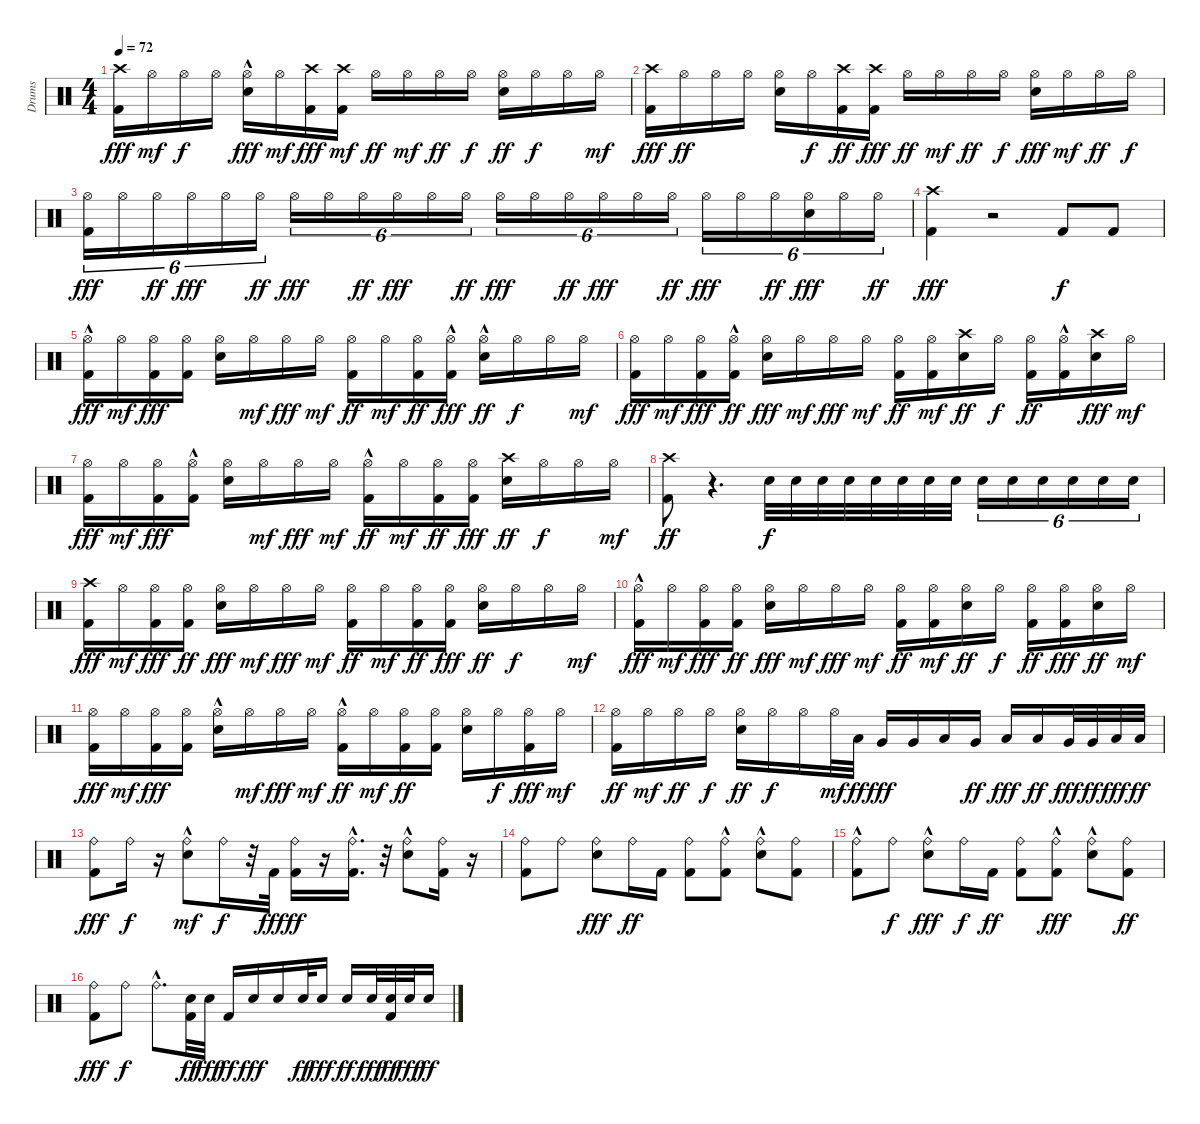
\track ("Drums" "Drums") {instrument percussion}
\staff {score}
\articulation defaults
\ts (4 4)
\tempo 72
\clef neutral
\ks c
("Kick (hit) 2" "Crash high (hit)").16{dy fff} "Hi-Hat (open)".16{dy mf} "Hi-Hat (open)".16{dy f} "Hi-Hat (open)".16 ("Snare (hit) 2"{hac} "Hi-Hat (open)").16{dy fff} "Hi-Hat (open)".16{dy mf} ("Kick (hit) 2" "Crash high (hit)").16{dy fff} ("Kick (hit) 2" "Crash high (hit)").16{dy mf} "Hi-Hat (open)".16{dy ff} "Hi-Hat (open)".16{dy mf} "Hi-Hat (open)".16{dy ff} "Hi-Hat (open)".16{dy f} ("Snare (hit) 2" "Hi-Hat (open)").16{dy ff} "Hi-Hat (open)".16{dy f} "Hi-Hat (open)".16 "Hi-Hat (open)".16{dy mf} |
("Crash high (hit)" "Kick (hit) 2").16{dy fff} "Hi-Hat (open)".16{dy ff} "Hi-Hat (open)".16 "Hi-Hat (open)".16 ("Snare (hit) 2" "Hi-Hat (open)").16 "Hi-Hat (open)".16{dy f} ("Kick (hit) 2" "Crash high (hit)").16{dy ff} ("Crash high (hit)" "Kick (hit) 2").16{dy fff} "Hi-Hat (open)".16{dy ff} "Hi-Hat (open)".16{dy mf} "Hi-Hat (open)".16{dy ff} "Hi-Hat (open)".16{dy f} ("Hi-Hat (open)" "Snare (hit) 2").16{dy fff} "Hi-Hat (open)".16{dy mf} "Hi-Hat (open)".16{dy ff} "Hi-Hat (open)".16{dy f} |
("Kick (hit) 2" "Hi-Hat (open)").16{tu (6 4) dy fff} "Hi-Hat (open)".16{tu (6 4)} "Hi-Hat (open)".16{tu (6 4) dy ff} "Hi-Hat (open)".16{tu (6 4) dy fff} "Hi-Hat (open)".16{tu (6 4)} "Hi-Hat (open)".16{tu (6 4) dy ff} "Hi-Hat (open)".16{tu (6 4) dy fff} "Hi-Hat (open)".16{tu (6 4)} "Hi-Hat (open)".16{tu (6 4) dy ff} "Hi-Hat (open)".16{tu (6 4) dy fff} "Hi-Hat (open)".16{tu (6 4)} "Hi-Hat (open)".16{tu (6 4) dy ff} "Hi-Hat (open)".16{tu (6 4) dy fff} "Hi-Hat (open)".16{tu (6 4)} "Hi-Hat (open)".16{tu (6 4) dy ff} "Hi-Hat (open)".16{tu (6 4) dy fff} "Hi-Hat (open)".16{tu (6 4)} "Hi-Hat (open)".16{tu (6 4) dy ff} "Hi-Hat (open)".16{tu (6 4) dy fff} "Hi-Hat (open)".16{tu (6 4)} "Hi-Hat (open)".16{tu (6 4) dy ff} ("Hi-Hat (open)" "Snare (hit) 2").16{tu (6 4) dy fff} "Hi-Hat (open)".16{tu (6 4)} "Hi-Hat (open)".16{tu (6 4) dy ff} |
("Kick (hit) 2" "Crash high (hit)").4{dy fff} r.2 "Kick (hit) 2".8{dy f} "Kick (hit) 2".8 |
("Kick (hit) 2"{hac} "Hi-Hat (open)").16{dy fff} "Hi-Hat (open)".16{dy mf} ("Kick (hit) 2" "Hi-Hat (open)").16{dy fff} ("Kick (hit) 2" "Hi-Hat (open)").16 ("Snare (hit) 2" "Hi-Hat (open)").16 "Hi-Hat (open)".16{dy mf} "Hi-Hat (open)".16{dy fff} "Hi-Hat (open)".16{dy mf} ("Kick (hit) 2" "Hi-Hat (open)").16{dy ff} "Hi-Hat (open)".16{dy mf} ("Kick (hit) 2" "Hi-Hat (open)").16{dy ff} ("Kick (hit) 2"{hac} "Hi-Hat (open)").16{dy fff} ("Snare (hit) 2"{hac} "Hi-Hat (open)").16{dy ff} "Hi-Hat (open)".16{dy f} "Hi-Hat (open)".16 "Hi-Hat (open)".16{dy mf} |
("Kick (hit) 2" "Hi-Hat (open)").16{dy fff} "Hi-Hat (open)".16{dy mf} ("Kick (hit) 2" "Hi-Hat (open)").16{dy fff} ("Kick (hit) 2"{hac} "Hi-Hat (open)").16{dy ff} ("Snare (hit) 2" "Hi-Hat (open)").16{dy fff} "Hi-Hat (open)".16{dy mf} "Hi-Hat (open)".16{dy fff} "Hi-Hat (open)".16{dy mf} ("Kick (hit) 2" "Hi-Hat (open)").16{dy ff} ("Kick (hit) 2" "Hi-Hat (open)").16{dy mf} ("Snare (hit) 2" "Crash high (hit)").16{dy ff} "Hi-Hat (open)".16{dy f} ("Kick (hit) 2" "Hi-Hat (open)").16{dy ff} ("Kick (hit) 2"{hac} "Hi-Hat (open)").16 ("Snare (hit) 2" "Crash high (hit)").16{dy fff} "Hi-Hat (open)".16{dy mf} |
("Kick (hit) 2" "Hi-Hat (open)").16{dy fff} "Hi-Hat (open)".16{dy mf} ("Kick (hit) 2" "Hi-Hat (open)").16{dy fff} ("Kick (hit) 2"{hac} "Hi-Hat (open)").16 ("Snare (hit) 2" "Hi-Hat (open)").16 "Hi-Hat (open)".16{dy mf} "Hi-Hat (open)".16{dy fff} "Hi-Hat (open)".16{dy mf} ("Kick (hit) 2"{hac} "Hi-Hat (open)").16{dy ff} "Hi-Hat (open)".16{dy mf} ("Kick (hit) 2" "Hi-Hat (open)").16{dy ff} ("Kick (hit) 2" "Hi-Hat (open)").16{dy fff} ("Snare (hit) 2" "Crash high (hit)").16{dy ff} "Hi-Hat (open)".16{dy f} "Hi-Hat (open)".16 "Hi-Hat (open)".16{dy mf} |
("Kick (hit) 2" "Crash high (hit)").8{dy ff} r.4{d} "Snare (hit) 2".32{dy f} "Snare (hit) 2".32 "Snare (hit) 2".32 "Snare (hit) 2".32 "Snare (hit) 2".32 "Snare (hit) 2".32 "Snare (hit) 2".32 "Snare (hit) 2".32 "Snare (hit) 2".16{tu (6 4)} "Snare (hit) 2".16{tu (6 4)} "Snare (hit) 2".16{tu (6 4)} "Snare (hit) 2".16{tu (6 4)} "Snare (hit) 2".16{tu (6 4)} "Snare (hit) 2".16{tu (6 4)} |
("Kick (hit) 2" "Crash high (hit)").16{dy fff} "Hi-Hat (open)".16{dy mf} ("Kick (hit) 2" "Hi-Hat (open)").16{dy fff} ("Kick (hit) 2" "Hi-Hat (open)").16{dy ff} ("Snare (hit) 2" "Hi-Hat (open)").16{dy fff} "Hi-Hat (open)".16{dy mf} "Hi-Hat (open)".16{dy fff} "Hi-Hat (open)".16{dy mf} ("Kick (hit) 2" "Hi-Hat (open)").16{dy ff} "Hi-Hat (open)".16{dy mf} ("Kick (hit) 2" "Hi-Hat (open)").16{dy ff} ("Kick (hit) 2" "Hi-Hat (open)").16{dy fff} ("Snare (hit) 2" "Hi-Hat (open)").16{dy ff} "Hi-Hat (open)".16{dy f} "Hi-Hat (open)".16 "Hi-Hat (open)".16{dy mf} |
("Kick (hit) 2"{hac} "Hi-Hat (open)").16{dy fff} "Hi-Hat (open)".16{dy mf} ("Kick (hit) 2" "Hi-Hat (open)").16{dy fff} ("Kick (hit) 2" "Hi-Hat (open)").16{dy ff} ("Snare (hit) 2" "Hi-Hat (open)").16{dy fff} "Hi-Hat (open)".16{dy mf} "Hi-Hat (open)".16{dy fff} "Hi-Hat (open)".16{dy mf} ("Kick (hit) 2" "Hi-Hat (open)").16{dy ff} ("Kick (hit) 2" "Hi-Hat (open)").16{dy mf} ("Snare (hit) 2" "Hi-Hat (open)").16{dy ff} "Hi-Hat (open)".16{dy f} ("Kick (hit) 2" "Hi-Hat (open)").16{dy ff} ("Kick (hit) 2" "Hi-Hat (open)").16{dy fff} ("Snare (hit) 2" "Hi-Hat (open)").16{dy ff} "Hi-Hat (open)".16{dy mf} |
("Kick (hit) 2" "Hi-Hat (open)").16{dy fff} "Hi-Hat (open)".16{dy mf} ("Kick (hit) 2" "Hi-Hat (open)").16{dy fff} ("Kick (hit) 2" "Hi-Hat (open)").16 ("Snare (hit) 2"{hac} "Hi-Hat (open)").16 "Hi-Hat (open)".16{dy mf} "Hi-Hat (open)".16{dy fff} "Hi-Hat (open)".16{dy mf} ("Kick (hit) 2"{hac} "Hi-Hat (open)").16{dy ff} "Hi-Hat (open)".16{dy mf} ("Kick (hit) 2" "Hi-Hat (open)").16{dy ff} ("Kick (hit) 2" "Hi-Hat (open)").16 ("Snare (hit) 2" "Hi-Hat (open)").16 "Hi-Hat (open)".16{dy f} ("Kick (hit) 2" "Hi-Hat (open)").16{dy fff} "Hi-Hat (open)".16{dy mf} |
("Kick (hit) 2" "Hi-Hat (open)").16{dy ff} "Hi-Hat (open)".16{dy mf} "Hi-Hat (open)".16{dy ff} "Hi-Hat (open)".16{dy f} ("Snare (hit) 2" "Hi-Hat (open)").16{dy ff} "Hi-Hat (open)".16{dy f} "Hi-Hat (open)".16 "Hi-Hat (open)".32{dy mf} "Low Floor Tom (hit)".32{dy ff} "Very Low Tom (hit)".16{dy fff} "Very Low Tom (hit)".16 "Low Floor Tom (hit)".16 "Very Low Tom (hit)".16{dy ff} "Low Tom (hit)".16{dy fff} "Low Tom (hit)".16{dy ff} "Very Low Tom (hit)".32{dy fff} "Very Low Tom (hit)".32{dy ff} "Low Floor Tom (hit)".32{dy fff} "Low Floor Tom (hit)".32{dy ff} |
("Ride (bell)" "Kick (hit) 2").8{dy fff} "Ride (bell)".16{dy f} r.16 ("Snare (hit) 2"{hac} "Ride (bell)").8{dy mf} "Ride (bell)".16{dy f} r.32 "Kick (hit) 2".32{dy fff} ("Ride (bell)" "Kick (hit) 2").16{dy ff} r.16 ("Kick (hit) 2"{hac} "Ride (bell)").16{d} r.32 ("Snare (hit) 2"{hac} "Ride (bell)").8 ("Kick (hit) 2" "Ride (bell)").16 r.16 |
("Kick (hit) 2" "Ride (bell)").8 "Ride (bell)".8 ("Snare (hit) 2" "Ride (bell)").8{dy fff} "Ride (bell)".16{dy ff} "Kick (hit) 2".16 ("Kick (hit) 2" "Ride (bell)").8 ("Kick (hit) 2"{hac} "Ride (bell)").8 ("Snare (hit) 2"{hac} "Ride (bell)").8 ("Kick (hit) 2" "Ride (bell)").8 |
("Kick (hit) 2"{hac} "Ride (bell)").8 "Ride (bell)".8{dy f} ("Snare (hit) 2"{hac} "Ride (bell)").8{dy fff} "Ride (bell)".16{dy f} "Kick (hit) 2".16{dy ff} ("Kick (hit) 2" "Ride (bell)").8 ("Kick (hit) 2"{hac} "Ride (bell)").8{dy fff} ("Snare (hit) 2"{hac} "Ride (bell)").8 ("Kick (hit) 2" "Ride (bell)").8{dy ff} |
("Kick (hit) 2" "Ride (bell)").8{dy fff} "Ride (bell)".8{dy f} "Ride (bell)"{hac}.8{d} ("Kick (hit) 2" "Snare (hit) 2").32{dy ff} "Snare (hit) 2".32{dy fff} "Kick (hit) 2".16{dy ff} "Snare (hit) 2".16{dy fff} "Snare (hit) 2".16 "Snare (hit) 2".32{dy ff} "Snare (hit) 2".16{dy fff} "Snare (hit) 2".16{dy ff} "Snare (hit) 2".32{dy fff} ("Kick (hit) 2" "Snare (hit) 2").32{dy ff} "Snare (hit) 2".32{dy fff} "Snare (hit) 2".16{dy ff}
